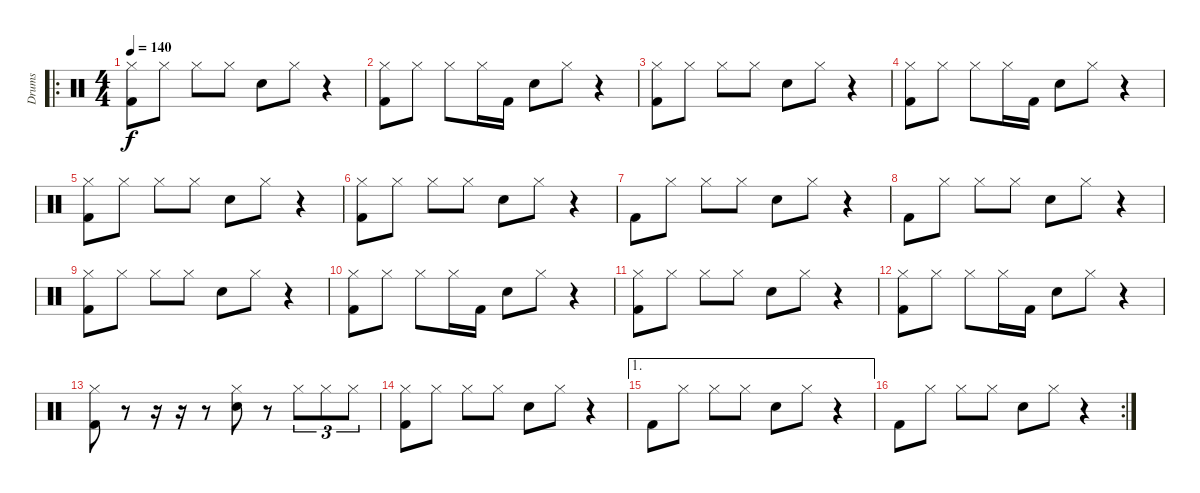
\track ("Drums" "Drums") {instrument percussion}
\staff {score}
\articulation defaults
\ro
\ts (4 4)
\tempo 140
\clef neutral
\ks c
("Hi-Hat (closed)" "Kick (hit) 2").8{dy f} "Hi-Hat (closed)".8 "Hi-Hat (closed)".8 "Hi-Hat (closed)".8 "Snare (hit) 2".8 "Hi-Hat (closed)".8 r.4 |
("Hi-Hat (closed)" "Kick (hit) 2").8 "Hi-Hat (closed)".8 "Hi-Hat (closed)".8 "Hi-Hat (closed)".16 "Kick (hit) 2".16 "Snare (hit) 2".8 "Hi-Hat (closed)".8 r.4 |
("Hi-Hat (closed)" "Kick (hit) 2").8 "Hi-Hat (closed)".8 "Hi-Hat (closed)".8 "Hi-Hat (closed)".8 "Snare (hit) 2".8 "Hi-Hat (closed)".8 r.4 |
("Hi-Hat (closed)" "Kick (hit) 2").8 "Hi-Hat (closed)".8 "Hi-Hat (closed)".8 "Hi-Hat (closed)".16 "Kick (hit) 2".16 "Snare (hit) 2".8 "Hi-Hat (closed)".8 r.4 |
("Hi-Hat (closed)" "Kick (hit) 2").8 "Hi-Hat (closed)".8 "Hi-Hat (closed)".8 "Hi-Hat (closed)".8 "Snare (hit) 2".8 "Hi-Hat (closed)".8 r.4 |
("Hi-Hat (closed)" "Kick (hit) 2").8 "Hi-Hat (closed)".8 "Hi-Hat (closed)".8 "Hi-Hat (closed)".8 "Snare (hit) 2".8 "Hi-Hat (closed)".8 r.4 |
"Kick (hit) 2".8 "Hi-Hat (closed)".8 "Hi-Hat (closed)".8 "Hi-Hat (closed)".8 "Snare (hit) 2".8 "Hi-Hat (closed)".8 r.4 |
"Kick (hit) 2".8 "Hi-Hat (closed)".8 "Hi-Hat (closed)".8 "Hi-Hat (closed)".8 "Snare (hit) 2".8 "Hi-Hat (closed)".8 r.4 |
("Hi-Hat (closed)" "Kick (hit) 2").8 "Hi-Hat (closed)".8 "Hi-Hat (closed)".8 "Hi-Hat (closed)".8 "Snare (hit) 2".8 "Hi-Hat (closed)".8 r.4 |
("Hi-Hat (closed)" "Kick (hit) 2").8 "Hi-Hat (closed)".8 "Hi-Hat (closed)".8 "Hi-Hat (closed)".16 "Kick (hit) 2".16 "Snare (hit) 2".8 "Hi-Hat (closed)".8 r.4 |
("Hi-Hat (closed)" "Kick (hit) 2").8 "Hi-Hat (closed)".8 "Hi-Hat (closed)".8 "Hi-Hat (closed)".8 "Snare (hit) 2".8 "Hi-Hat (closed)".8 r.4 |
("Hi-Hat (closed)" "Kick (hit) 2").8 "Hi-Hat (closed)".8 "Hi-Hat (closed)".8 "Hi-Hat (closed)".16 "Kick (hit) 2".16 "Snare (hit) 2".8 "Hi-Hat (closed)".8 r.4 |
("Hi-Hat (closed)" "Kick (hit) 2").8 r.8 r.16 r.16 r.8 ("Hi-Hat (closed)" "Snare (hit) 2").8 r.8 "Hi-Hat (closed)".8{tu (3 2)} "Hi-Hat (closed)".8{tu (3 2)} "Hi-Hat (closed)".8{tu (3 2)} |
("Hi-Hat (closed)" "Kick (hit) 2").8 "Hi-Hat (closed)".8 "Hi-Hat (closed)".8 "Hi-Hat (closed)".8 "Snare (hit) 2".8 "Hi-Hat (closed)".8 r.4 |
\ae 1 "Kick (hit) 2".8 "Hi-Hat (closed)".8 "Hi-Hat (closed)".8 "Hi-Hat (closed)".8 "Snare (hit) 2".8 "Hi-Hat (closed)".8
r.4 |
\rc 2 "Kick (hit) 2".8 "Hi-Hat (closed)".8 "Hi-Hat (closed)".8 "Hi-Hat (closed)".8 "Snare (hit) 2".8 "Hi-Hat (closed)".8
r.4
